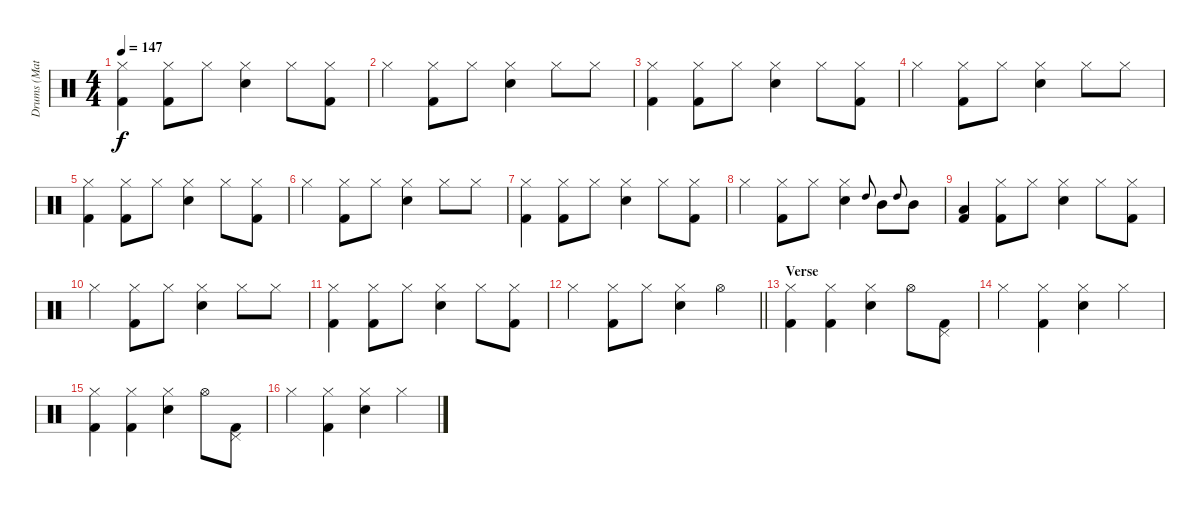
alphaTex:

\track ("Drums (Matt Laug)" "Drums (Mat") {instrument percussion}
\staff {score}
\articulation defaults
\ts (4 4)
\tempo 147
\clef neutral
\ks c
("Hi-Hat (closed)" "Kick (hit) 2").4{dy f} ("Hi-Hat (closed)" "Kick (hit) 2").8 "Hi-Hat (closed)".8 ("Hi-Hat (closed)" "Electric Snare (hit)").4 "Hi-Hat (closed)".8 ("Hi-Hat (closed)" "Kick (hit) 2").8 |
"Hi-Hat (closed)".4 ("Hi-Hat (closed)" "Kick (hit) 2").8 "Hi-Hat (closed)".8 ("Hi-Hat (closed)" "Electric Snare (hit)").4 "Hi-Hat (closed)".8 "Hi-Hat (closed)".8 |
("Hi-Hat (closed)" "Kick (hit) 2").4 ("Hi-Hat (closed)" "Kick (hit) 2").8 "Hi-Hat (closed)".8 ("Hi-Hat (closed)" "Electric Snare (hit)").4 "Hi-Hat (closed)".8 ("Hi-Hat (closed)" "Kick (hit) 2").8 |
"Hi-Hat (closed)".4 ("Hi-Hat (closed)" "Kick (hit) 2").8 "Hi-Hat (closed)".8 ("Hi-Hat (closed)" "Electric Snare (hit)").4 "Hi-Hat (closed)".8 "Hi-Hat (closed)".8 |
("Hi-Hat (closed)" "Kick (hit) 2").4 ("Hi-Hat (closed)" "Kick (hit) 2").8 "Hi-Hat (closed)".8 ("Hi-Hat (closed)" "Electric Snare (hit)").4 "Hi-Hat (closed)".8 ("Hi-Hat (closed)" "Kick (hit) 2").8 |
"Hi-Hat (closed)".4 ("Hi-Hat (closed)" "Kick (hit) 2").8 "Hi-Hat (closed)".8 ("Hi-Hat (closed)" "Electric Snare (hit)").4 "Hi-Hat (closed)".8 "Hi-Hat (closed)".8 |
("Hi-Hat (closed)" "Kick (hit) 2").4 ("Hi-Hat (closed)" "Kick (hit) 2").8 "Hi-Hat (closed)".8 ("Hi-Hat (closed)" "Electric Snare (hit)").4 "Hi-Hat (closed)".8 ("Hi-Hat (closed)" "Kick (hit) 2").8 |
"Hi-Hat (closed)".4 ("Hi-Hat (closed)" "Kick (hit) 2").8 "Hi-Hat (closed)".8 ("Hi-Hat (closed)" "Electric Snare (hit)").4 "High Tom (hit)".8{gr onbeat} "Mid Tom (hit)".8 "High Tom (hit)".8{gr onbeat} "Mid Tom (hit)".8 |
("Low Tom (hit)" "Kick (hit) 2").4 ("Hi-Hat (closed)" "Kick (hit) 2").8 "Hi-Hat (closed)".8 ("Hi-Hat (closed)" "Electric Snare (hit)").4 "Hi-Hat (closed)".8 ("Hi-Hat (closed)" "Kick (hit) 2").8 |
"Hi-Hat (closed)".4 ("Hi-Hat (closed)" "Kick (hit) 2").8 "Hi-Hat (closed)".8 ("Hi-Hat (closed)" "Electric Snare (hit)").4 "Hi-Hat (closed)".8 "Hi-Hat (closed)".8 |
("Hi-Hat (closed)" "Kick (hit) 2").4 ("Hi-Hat (closed)" "Kick (hit) 2").8 "Hi-Hat (closed)".8 ("Hi-Hat (closed)" "Electric Snare (hit)").4 "Hi-Hat (closed)".8 ("Hi-Hat (closed)" "Kick (hit) 2").8 |
\barLineRight lightlight "Hi-Hat (closed)".4
("Hi-Hat (closed)" "Kick (hit) 2").8 "Hi-Hat (closed)".8 ("Hi-Hat (closed)" "Electric Snare (hit)").4 "Hi-Hat (open)".4 |
\section ("" "Verse")
("Hi-Hat (closed)" "Kick (hit) 2").4 ("Hi-Hat (closed)" "Kick (hit) 2").4 ("Hi-Hat (closed)" "Electric Snare (hit)").4 "Hi-Hat (open)".8 ("Pedal Hi-Hat (hit)" "Kick (hit) 2").8 |
"Hi-Hat (closed)".4 ("Hi-Hat (closed)" "Kick (hit) 2").4 ("Hi-Hat (closed)" "Electric Snare (hit)").4 "Hi-Hat (closed)".4 |
("Hi-Hat (closed)" "Kick (hit) 2").4 ("Hi-Hat (closed)" "Kick (hit) 2").4 ("Hi-Hat (closed)" "Electric Snare (hit)").4 "Hi-Hat (open)".8 ("Pedal Hi-Hat (hit)" "Kick (hit) 2").8 |
"Hi-Hat (closed)".4 ("Hi-Hat (closed)" "Kick (hit) 2").4 ("Hi-Hat (closed)" "Electric Snare (hit)").4 "Hi-Hat (closed)".4
